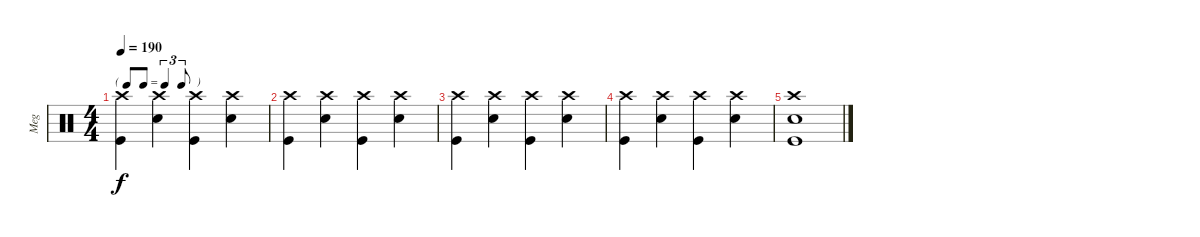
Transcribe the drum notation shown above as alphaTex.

\track ("Meg" "Meg") {instrument percussion}
\staff {score}
\articulation defaults
\ts (4 4)
\tf triplet8th
\tempo 190
\clef neutral
\ks c
("Crash high (hit)" "Kick (hit)").4{dy f} ("Crash high (hit)" "Electric Snare (hit)").4 ("Crash high (hit)" "Kick (hit)").4 ("Crash high (hit)" "Electric Snare (hit)").4 |
("Crash high (hit)" "Kick (hit)").4 ("Crash high (hit)" "Electric Snare (hit)").4 ("Crash high (hit)" "Kick (hit)").4 ("Crash high (hit)" "Electric Snare (hit)").4 |
("Crash high (hit)" "Kick (hit)").4 ("Crash high (hit)" "Electric Snare (hit)").4 ("Crash high (hit)" "Kick (hit)").4 ("Crash high (hit)" "Electric Snare (hit)").4 |
("Crash high (hit)" "Kick (hit)").4 ("Crash high (hit)" "Electric Snare (hit)").4 ("Crash high (hit)" "Kick (hit)").4 ("Crash high (hit)" "Electric Snare (hit)").4 |
("Crash high (hit)" "Electric Snare (hit)" "Kick (hit)").1
